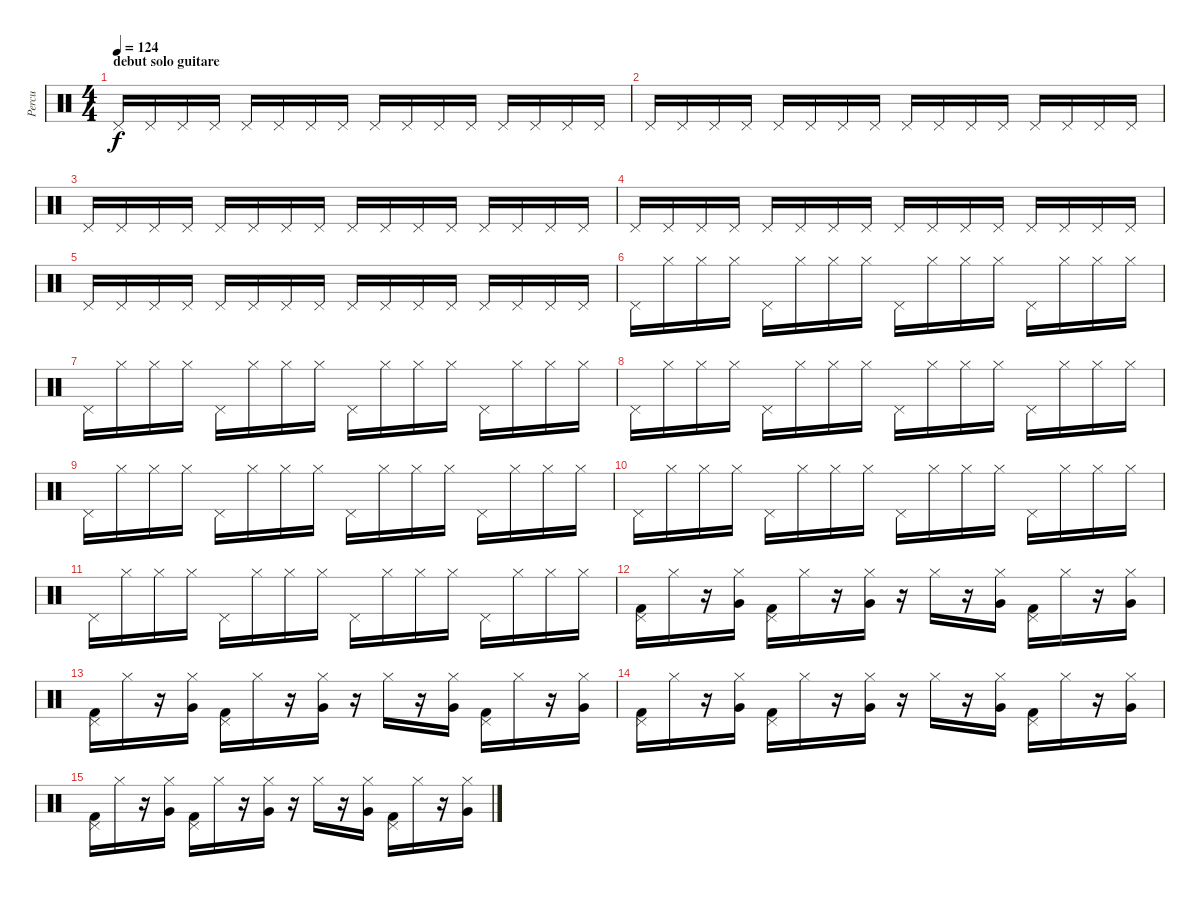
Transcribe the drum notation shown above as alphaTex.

\track ("Percu" "Percu") {instrument percussion}
\staff {score}
\articulation defaults
\ts (4 4)
\section ("" "debut solo guitare")
\tempo 124
\clef neutral
\ks c "Pedal Hi-Hat (hit)".16{dy f} "Pedal Hi-Hat (hit)".16 "Pedal Hi-Hat (hit)".16 "Pedal Hi-Hat (hit)".16 "Pedal Hi-Hat (hit)".16 "Pedal Hi-Hat (hit)".16 "Pedal Hi-Hat (hit)".16 "Pedal Hi-Hat (hit)".16 "Pedal Hi-Hat (hit)".16 "Pedal Hi-Hat (hit)".16 "Pedal Hi-Hat (hit)".16 "Pedal Hi-Hat (hit)".16 "Pedal Hi-Hat (hit)".16 "Pedal Hi-Hat (hit)".16 "Pedal Hi-Hat (hit)".16 "Pedal Hi-Hat (hit)".16
|
"Pedal Hi-Hat (hit)".16 "Pedal Hi-Hat (hit)".16 "Pedal Hi-Hat (hit)".16 "Pedal Hi-Hat (hit)".16 "Pedal Hi-Hat (hit)".16 "Pedal Hi-Hat (hit)".16 "Pedal Hi-Hat (hit)".16 "Pedal Hi-Hat (hit)".16 "Pedal Hi-Hat (hit)".16 "Pedal Hi-Hat (hit)".16 "Pedal Hi-Hat (hit)".16 "Pedal Hi-Hat (hit)".16 "Pedal Hi-Hat (hit)".16 "Pedal Hi-Hat (hit)".16 "Pedal Hi-Hat (hit)".16 "Pedal Hi-Hat (hit)".16 |
"Pedal Hi-Hat (hit)".16 "Pedal Hi-Hat (hit)".16 "Pedal Hi-Hat (hit)".16 "Pedal Hi-Hat (hit)".16 "Pedal Hi-Hat (hit)".16 "Pedal Hi-Hat (hit)".16 "Pedal Hi-Hat (hit)".16 "Pedal Hi-Hat (hit)".16 "Pedal Hi-Hat (hit)".16 "Pedal Hi-Hat (hit)".16 "Pedal Hi-Hat (hit)".16 "Pedal Hi-Hat (hit)".16 "Pedal Hi-Hat (hit)".16 "Pedal Hi-Hat (hit)".16 "Pedal Hi-Hat (hit)".16 "Pedal Hi-Hat (hit)".16 |
"Pedal Hi-Hat (hit)".16 "Pedal Hi-Hat (hit)".16 "Pedal Hi-Hat (hit)".16 "Pedal Hi-Hat (hit)".16 "Pedal Hi-Hat (hit)".16 "Pedal Hi-Hat (hit)".16 "Pedal Hi-Hat (hit)".16 "Pedal Hi-Hat (hit)".16 "Pedal Hi-Hat (hit)".16 "Pedal Hi-Hat (hit)".16 "Pedal Hi-Hat (hit)".16 "Pedal Hi-Hat (hit)".16 "Pedal Hi-Hat (hit)".16 "Pedal Hi-Hat (hit)".16 "Pedal Hi-Hat (hit)".16 "Pedal Hi-Hat (hit)".16 |
"Pedal Hi-Hat (hit)".16 "Pedal Hi-Hat (hit)".16 "Pedal Hi-Hat (hit)".16 "Pedal Hi-Hat (hit)".16 "Pedal Hi-Hat (hit)".16 "Pedal Hi-Hat (hit)".16 "Pedal Hi-Hat (hit)".16 "Pedal Hi-Hat (hit)".16 "Pedal Hi-Hat (hit)".16 "Pedal Hi-Hat (hit)".16 "Pedal Hi-Hat (hit)".16 "Pedal Hi-Hat (hit)".16 "Pedal Hi-Hat (hit)".16 "Pedal Hi-Hat (hit)".16 "Pedal Hi-Hat (hit)".16 "Pedal Hi-Hat (hit)".16 |
"Pedal Hi-Hat (hit)".16 "Hi-Hat (closed)".16 "Hi-Hat (closed)".16 "Hi-Hat (closed)".16 "Pedal Hi-Hat (hit)".16 "Hi-Hat (closed)".16 "Hi-Hat (closed)".16 "Hi-Hat (closed)".16 "Pedal Hi-Hat (hit)".16 "Hi-Hat (closed)".16 "Hi-Hat (closed)".16 "Hi-Hat (closed)".16 "Pedal Hi-Hat (hit)".16 "Hi-Hat (closed)".16 "Hi-Hat (closed)".16 "Hi-Hat (closed)".16 |
"Pedal Hi-Hat (hit)".16 "Hi-Hat (closed)".16 "Hi-Hat (closed)".16 "Hi-Hat (closed)".16 "Pedal Hi-Hat (hit)".16 "Hi-Hat (closed)".16 "Hi-Hat (closed)".16 "Hi-Hat (closed)".16 "Pedal Hi-Hat (hit)".16 "Hi-Hat (closed)".16 "Hi-Hat (closed)".16 "Hi-Hat (closed)".16 "Pedal Hi-Hat (hit)".16 "Hi-Hat (closed)".16 "Hi-Hat (closed)".16 "Hi-Hat (closed)".16 |
"Pedal Hi-Hat (hit)".16 "Hi-Hat (closed)".16 "Hi-Hat (closed)".16 "Hi-Hat (closed)".16 "Pedal Hi-Hat (hit)".16 "Hi-Hat (closed)".16 "Hi-Hat (closed)".16 "Hi-Hat (closed)".16 "Pedal Hi-Hat (hit)".16 "Hi-Hat (closed)".16 "Hi-Hat (closed)".16 "Hi-Hat (closed)".16 "Pedal Hi-Hat (hit)".16 "Hi-Hat (closed)".16 "Hi-Hat (closed)".16 "Hi-Hat (closed)".16 |
"Pedal Hi-Hat (hit)".16 "Hi-Hat (closed)".16 "Hi-Hat (closed)".16 "Hi-Hat (closed)".16 "Pedal Hi-Hat (hit)".16 "Hi-Hat (closed)".16 "Hi-Hat (closed)".16 "Hi-Hat (closed)".16 "Pedal Hi-Hat (hit)".16 "Hi-Hat (closed)".16 "Hi-Hat (closed)".16 "Hi-Hat (closed)".16 "Pedal Hi-Hat (hit)".16 "Hi-Hat (closed)".16 "Hi-Hat (closed)".16 "Hi-Hat (closed)".16 |
"Pedal Hi-Hat (hit)".16 "Hi-Hat (closed)".16 "Hi-Hat (closed)".16 "Hi-Hat (closed)".16 "Pedal Hi-Hat (hit)".16 "Hi-Hat (closed)".16 "Hi-Hat (closed)".16 "Hi-Hat (closed)".16 "Pedal Hi-Hat (hit)".16 "Hi-Hat (closed)".16 "Hi-Hat (closed)".16 "Hi-Hat (closed)".16 "Pedal Hi-Hat (hit)".16 "Hi-Hat (closed)".16 "Hi-Hat (closed)".16 "Hi-Hat (closed)".16 |
"Pedal Hi-Hat (hit)".16 "Hi-Hat (closed)".16 "Hi-Hat (closed)".16 "Hi-Hat (closed)".16 "Pedal Hi-Hat (hit)".16 "Hi-Hat (closed)".16 "Hi-Hat (closed)".16 "Hi-Hat (closed)".16 "Pedal Hi-Hat (hit)".16 "Hi-Hat (closed)".16 "Hi-Hat (closed)".16 "Hi-Hat (closed)".16 "Pedal Hi-Hat (hit)".16 "Hi-Hat (closed)".16 "Hi-Hat (closed)".16 "Hi-Hat (closed)".16 |
("Pedal Hi-Hat (hit)" "Kick (hit) 2").16 "Hi-Hat (closed)".16 r.16 ("Hi-Hat (closed)" "Very Low Tom (hit)").16 ("Pedal Hi-Hat (hit)" "Kick (hit) 2").16 "Hi-Hat (closed)".16 r.16 ("Hi-Hat (closed)" "Very Low Tom (hit)").16 r.16 "Hi-Hat (closed)".16 r.16 ("Hi-Hat (closed)" "Very Low Tom (hit)").16 ("Pedal Hi-Hat (hit)" "Kick (hit) 2").16 "Hi-Hat (closed)".16 r.16 ("Hi-Hat (closed)" "Very Low Tom (hit)").16 |
("Pedal Hi-Hat (hit)" "Kick (hit) 2").16 "Hi-Hat (closed)".16 r.16 ("Hi-Hat (closed)" "Very Low Tom (hit)").16 ("Pedal Hi-Hat (hit)" "Kick (hit) 2").16 "Hi-Hat (closed)".16 r.16 ("Hi-Hat (closed)" "Very Low Tom (hit)").16 r.16 "Hi-Hat (closed)".16 r.16 ("Hi-Hat (closed)" "Very Low Tom (hit)").16 ("Pedal Hi-Hat (hit)" "Kick (hit) 2").16 "Hi-Hat (closed)".16 r.16 ("Hi-Hat (closed)" "Very Low Tom (hit)").16 |
("Pedal Hi-Hat (hit)" "Kick (hit) 2").16 "Hi-Hat (closed)".16 r.16 ("Hi-Hat (closed)" "Very Low Tom (hit)").16 ("Pedal Hi-Hat (hit)" "Kick (hit) 2").16 "Hi-Hat (closed)".16 r.16 ("Hi-Hat (closed)" "Very Low Tom (hit)").16 r.16 "Hi-Hat (closed)".16 r.16 ("Hi-Hat (closed)" "Very Low Tom (hit)").16 ("Pedal Hi-Hat (hit)" "Kick (hit) 2").16 "Hi-Hat (closed)".16 r.16 ("Hi-Hat (closed)" "Very Low Tom (hit)").16 |
("Pedal Hi-Hat (hit)" "Kick (hit) 2").16 "Hi-Hat (closed)".16 r.16 ("Hi-Hat (closed)" "Very Low Tom (hit)").16 ("Pedal Hi-Hat (hit)" "Kick (hit) 2").16 "Hi-Hat (closed)".16 r.16 ("Hi-Hat (closed)" "Very Low Tom (hit)").16 r.16 "Hi-Hat (closed)".16 r.16 ("Hi-Hat (closed)" "Very Low Tom (hit)").16 ("Pedal Hi-Hat (hit)" "Kick (hit) 2").16 "Hi-Hat (closed)".16 r.16 ("Hi-Hat (closed)" "Very Low Tom (hit)").16
